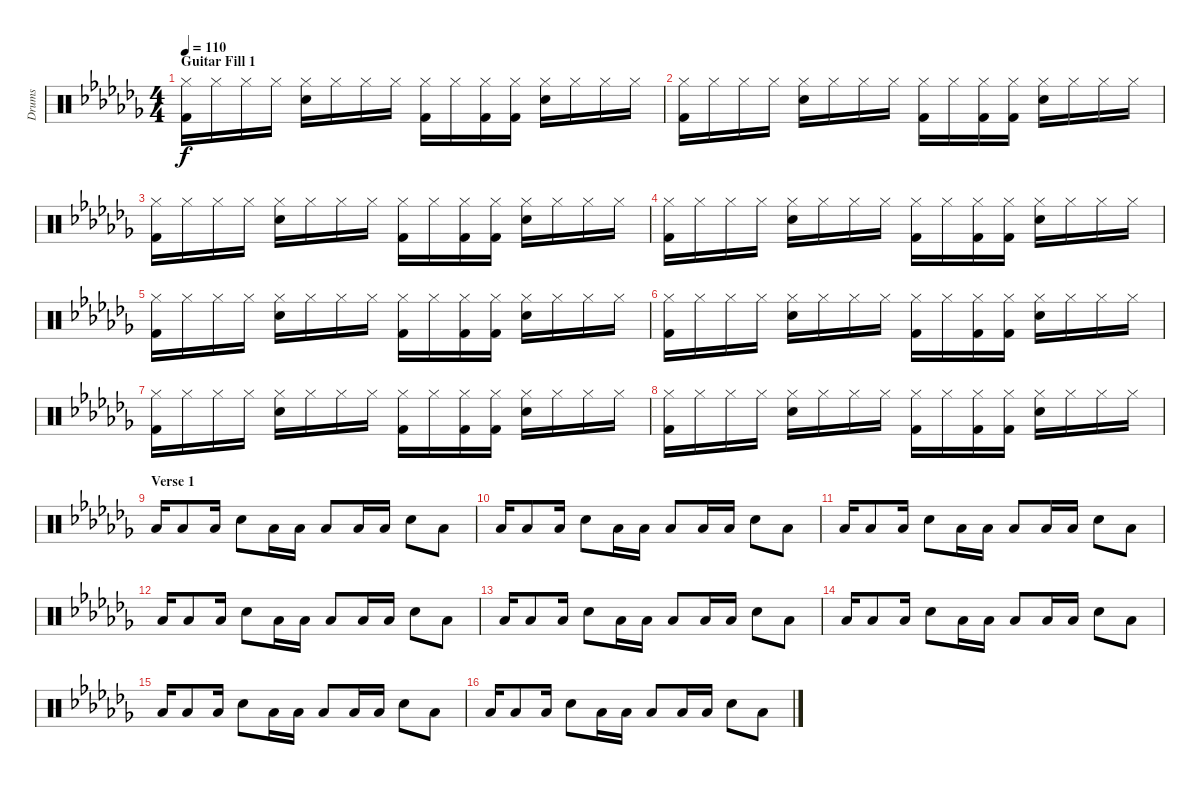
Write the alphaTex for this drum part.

\track ("Drums" "Drums") {instrument percussion}
\staff {score}
\articulation defaults
\ts (4 4)
\section ("" "Guitar Fill 1")
\tempo 110
\clef neutral
\ks abminor
("Hi-Hat (closed)" "Kick (hit) 2").16{dy f} "Hi-Hat (closed)".16 "Hi-Hat (closed)".16 "Hi-Hat (closed)".16 ("Hi-Hat (closed)" "Snare (hit) 2").16 "Hi-Hat (closed)".16 "Hi-Hat (closed)".16 "Hi-Hat (closed)".16 ("Hi-Hat (closed)" "Kick (hit) 2").16 "Hi-Hat (closed)".16 ("Hi-Hat (closed)" "Kick (hit) 2").16 ("Hi-Hat (closed)" "Kick (hit) 2").16 ("Hi-Hat (closed)" "Snare (hit) 2").16 "Hi-Hat (closed)".16 "Hi-Hat (closed)".16 "Hi-Hat (closed)".16 |
("Hi-Hat (closed)" "Kick (hit) 2").16 "Hi-Hat (closed)".16 "Hi-Hat (closed)".16 "Hi-Hat (closed)".16 ("Hi-Hat (closed)" "Snare (hit) 2").16 "Hi-Hat (closed)".16 "Hi-Hat (closed)".16 "Hi-Hat (closed)".16 ("Hi-Hat (closed)" "Kick (hit) 2").16 "Hi-Hat (closed)".16 ("Hi-Hat (closed)" "Kick (hit) 2").16 ("Hi-Hat (closed)" "Kick (hit) 2").16 ("Hi-Hat (closed)" "Snare (hit) 2").16 "Hi-Hat (closed)".16 "Hi-Hat (closed)".16 "Hi-Hat (closed)".16 |
("Hi-Hat (closed)" "Kick (hit) 2").16 "Hi-Hat (closed)".16 "Hi-Hat (closed)".16 "Hi-Hat (closed)".16 ("Hi-Hat (closed)" "Snare (hit) 2").16 "Hi-Hat (closed)".16 "Hi-Hat (closed)".16 "Hi-Hat (closed)".16 ("Hi-Hat (closed)" "Kick (hit) 2").16 "Hi-Hat (closed)".16 ("Hi-Hat (closed)" "Kick (hit) 2").16 ("Hi-Hat (closed)" "Kick (hit) 2").16 ("Hi-Hat (closed)" "Snare (hit) 2").16 "Hi-Hat (closed)".16 "Hi-Hat (closed)".16 "Hi-Hat (closed)".16 |
("Hi-Hat (closed)" "Kick (hit) 2").16 "Hi-Hat (closed)".16 "Hi-Hat (closed)".16 "Hi-Hat (closed)".16 ("Hi-Hat (closed)" "Snare (hit) 2").16 "Hi-Hat (closed)".16 "Hi-Hat (closed)".16 "Hi-Hat (closed)".16 ("Hi-Hat (closed)" "Kick (hit) 2").16 "Hi-Hat (closed)".16 ("Hi-Hat (closed)" "Kick (hit) 2").16 ("Hi-Hat (closed)" "Kick (hit) 2").16 ("Hi-Hat (closed)" "Snare (hit) 2").16 "Hi-Hat (closed)".16 "Hi-Hat (closed)".16 "Hi-Hat (closed)".16 |
("Hi-Hat (closed)" "Kick (hit) 2").16 "Hi-Hat (closed)".16 "Hi-Hat (closed)".16 "Hi-Hat (closed)".16 ("Hi-Hat (closed)" "Snare (hit) 2").16 "Hi-Hat (closed)".16 "Hi-Hat (closed)".16 "Hi-Hat (closed)".16 ("Hi-Hat (closed)" "Kick (hit) 2").16 "Hi-Hat (closed)".16 ("Hi-Hat (closed)" "Kick (hit) 2").16 ("Hi-Hat (closed)" "Kick (hit) 2").16 ("Hi-Hat (closed)" "Snare (hit) 2").16 "Hi-Hat (closed)".16 "Hi-Hat (closed)".16 "Hi-Hat (closed)".16 |
("Hi-Hat (closed)" "Kick (hit) 2").16 "Hi-Hat (closed)".16 "Hi-Hat (closed)".16 "Hi-Hat (closed)".16 ("Hi-Hat (closed)" "Snare (hit) 2").16 "Hi-Hat (closed)".16 "Hi-Hat (closed)".16 "Hi-Hat (closed)".16 ("Hi-Hat (closed)" "Kick (hit) 2").16 "Hi-Hat (closed)".16 ("Hi-Hat (closed)" "Kick (hit) 2").16 ("Hi-Hat (closed)" "Kick (hit) 2").16 ("Hi-Hat (closed)" "Snare (hit) 2").16 "Hi-Hat (closed)".16 "Hi-Hat (closed)".16 "Hi-Hat (closed)".16 |
("Hi-Hat (closed)" "Kick (hit) 2").16 "Hi-Hat (closed)".16 "Hi-Hat (closed)".16 "Hi-Hat (closed)".16 ("Hi-Hat (closed)" "Snare (hit) 2").16 "Hi-Hat (closed)".16 "Hi-Hat (closed)".16 "Hi-Hat (closed)".16 ("Hi-Hat (closed)" "Kick (hit) 2").16 "Hi-Hat (closed)".16 ("Hi-Hat (closed)" "Kick (hit) 2").16 ("Hi-Hat (closed)" "Kick (hit) 2").16 ("Hi-Hat (closed)" "Snare (hit) 2").16 "Hi-Hat (closed)".16 "Hi-Hat (closed)".16 "Hi-Hat (closed)".16 |
("Hi-Hat (closed)" "Kick (hit) 2").16 "Hi-Hat (closed)".16 "Hi-Hat (closed)".16 "Hi-Hat (closed)".16 ("Hi-Hat (closed)" "Snare (hit) 2").16 "Hi-Hat (closed)".16 "Hi-Hat (closed)".16 "Hi-Hat (closed)".16 ("Hi-Hat (closed)" "Kick (hit) 2").16 "Hi-Hat (closed)".16 ("Hi-Hat (closed)" "Kick (hit) 2").16 ("Hi-Hat (closed)" "Kick (hit) 2").16 ("Hi-Hat (closed)" "Snare (hit) 2").16 "Hi-Hat (closed)".16 "Hi-Hat (closed)".16 "Hi-Hat (closed)".16 |
\section ("" "Verse 1")
"Low Tom (hit)".16{volume 14} "Low Tom (hit)".8 "Low Tom (hit)".16 "Snare (hit) 2".8 "Low Tom (hit)".16 "Low Tom (hit)".16 "Low Tom (hit)".8 "Low Tom (hit)".16 "Low Tom (hit)".16 "Snare (hit) 2".8 "Low Tom (hit)".8 |
"Low Tom (hit)".16 "Low Tom (hit)".8 "Low Tom (hit)".16 "Snare (hit) 2".8 "Low Tom (hit)".16 "Low Tom (hit)".16 "Low Tom (hit)".8 "Low Tom (hit)".16 "Low Tom (hit)".16 "Snare (hit) 2".8 "Low Tom (hit)".8 |
"Low Tom (hit)".16 "Low Tom (hit)".8 "Low Tom (hit)".16 "Snare (hit) 2".8 "Low Tom (hit)".16 "Low Tom (hit)".16 "Low Tom (hit)".8 "Low Tom (hit)".16 "Low Tom (hit)".16 "Snare (hit) 2".8 "Low Tom (hit)".8 |
"Low Tom (hit)".16 "Low Tom (hit)".8 "Low Tom (hit)".16 "Snare (hit) 2".8 "Low Tom (hit)".16 "Low Tom (hit)".16 "Low Tom (hit)".8 "Low Tom (hit)".16 "Low Tom (hit)".16 "Snare (hit) 2".8 "Low Tom (hit)".8 |
"Low Tom (hit)".16 "Low Tom (hit)".8 "Low Tom (hit)".16 "Snare (hit) 2".8 "Low Tom (hit)".16 "Low Tom (hit)".16 "Low Tom (hit)".8 "Low Tom (hit)".16 "Low Tom (hit)".16 "Snare (hit) 2".8 "Low Tom (hit)".8 |
"Low Tom (hit)".16 "Low Tom (hit)".8 "Low Tom (hit)".16 "Snare (hit) 2".8 "Low Tom (hit)".16 "Low Tom (hit)".16 "Low Tom (hit)".8 "Low Tom (hit)".16 "Low Tom (hit)".16 "Snare (hit) 2".8 "Low Tom (hit)".8 |
"Low Tom (hit)".16 "Low Tom (hit)".8 "Low Tom (hit)".16 "Snare (hit) 2".8 "Low Tom (hit)".16 "Low Tom (hit)".16 "Low Tom (hit)".8 "Low Tom (hit)".16 "Low Tom (hit)".16 "Snare (hit) 2".8 "Low Tom (hit)".8 |
"Low Tom (hit)".16 "Low Tom (hit)".8 "Low Tom (hit)".16 "Snare (hit) 2".8 "Low Tom (hit)".16 "Low Tom (hit)".16 "Low Tom (hit)".8 "Low Tom (hit)".16 "Low Tom (hit)".16 "Snare (hit) 2".8 "Low Tom (hit)".8
